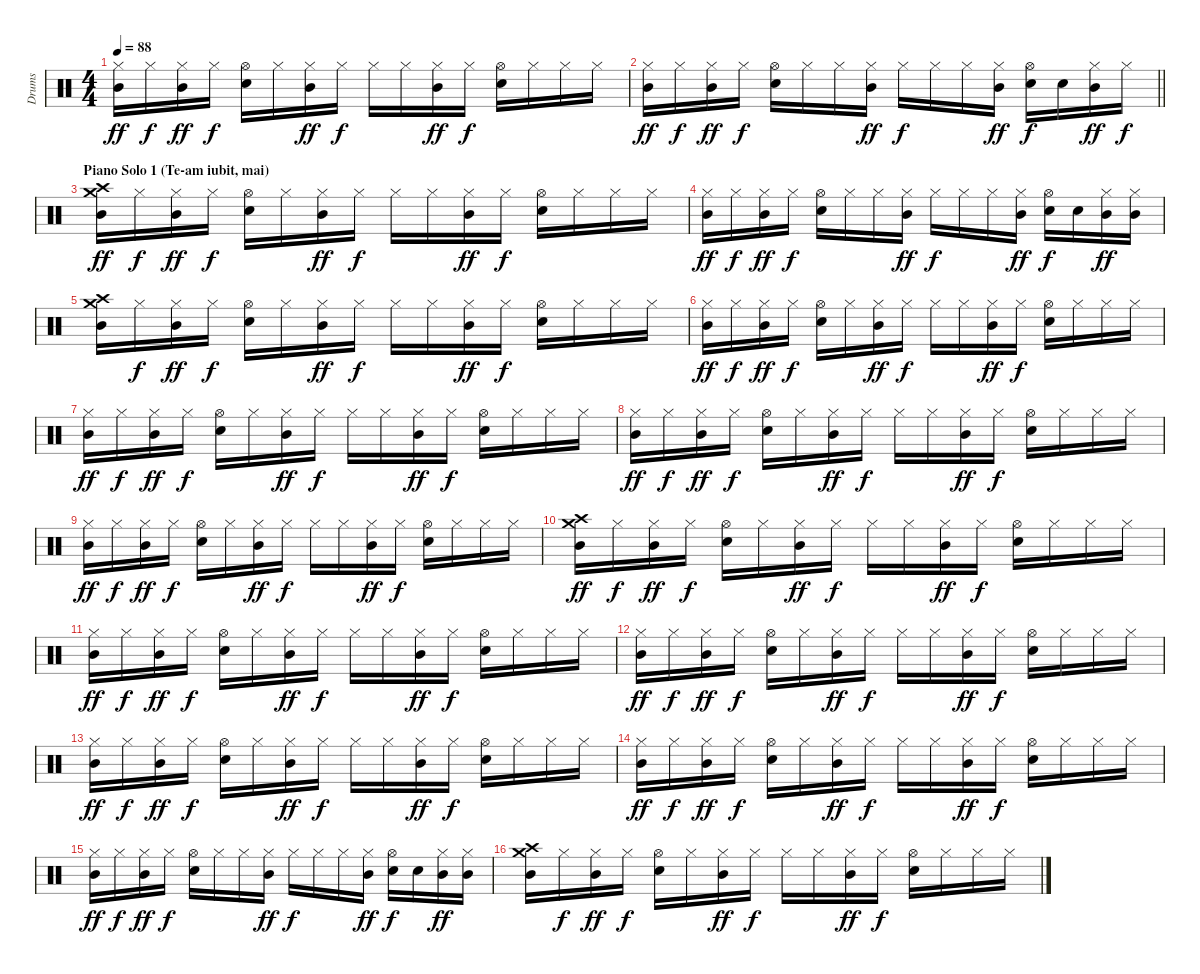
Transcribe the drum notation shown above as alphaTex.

\track ("Drums" "Drums") {instrument percussion}
\staff {score}
\articulation defaults
\ts (4 4)
\tempo 88
\clef neutral
\ks c
("Hi-Hat (closed)" "Mid Tom (hit)").16{dy ff} "Hi-Hat (closed)".16{dy f} ("Hi-Hat (closed)" "Mid Tom (hit)").16{dy ff} "Hi-Hat (closed)".16{dy f} ("Hi-Hat (open)" "Electric Snare (hit)").16 "Hi-Hat (closed)".16 ("Hi-Hat (closed)" "Mid Tom (hit)").16{dy ff} "Hi-Hat (closed)".16{dy f} "Hi-Hat (closed)".16 "Hi-Hat (closed)".16 ("Hi-Hat (closed)" "Mid Tom (hit)").16{dy ff} "Hi-Hat (closed)".16{dy f} ("Hi-Hat (open)" "Electric Snare (hit)").16 "Hi-Hat (closed)".16 "Hi-Hat (closed)".16 "Hi-Hat (closed)".16 |
\barLineRight lightlight
("Hi-Hat (closed)" "Mid Tom (hit)").16{dy ff} "Hi-Hat (closed)".16{dy f} ("Hi-Hat (closed)" "Mid Tom (hit)").16{dy ff} "Hi-Hat (closed)".16{dy f} ("Hi-Hat (open)" "Electric Snare (hit)").16 "Hi-Hat (closed)".16 "Hi-Hat (closed)".16 ("Hi-Hat (closed)" "Mid Tom (hit)").16{dy ff} "Hi-Hat (closed)".16{dy f} "Hi-Hat (closed)".16 "Hi-Hat (closed)".16 ("Hi-Hat (closed)" "Mid Tom (hit)").16{dy ff} ("Hi-Hat (open)" "Electric Snare (hit)").16{dy f} "Electric Snare (hit)".16 ("Hi-Hat (closed)" "Mid Tom (hit)").16{dy ff} "Hi-Hat (closed)".16{dy f} |
\section ("" "Piano Solo 1 (Te-am iubit, mai)")
("Crash medium (hit)" "Crash high (hit)" "Mid Tom (hit)").16{dy ff} "Hi-Hat (closed)".16{dy f} ("Hi-Hat (closed)" "Mid Tom (hit)").16{dy ff} "Hi-Hat (closed)".16{dy f} ("Hi-Hat (open)" "Electric Snare (hit)").16 "Hi-Hat (closed)".16 ("Hi-Hat (closed)" "Mid Tom (hit)").16{dy ff} "Hi-Hat (closed)".16{dy f} "Hi-Hat (closed)".16 "Hi-Hat (closed)".16 ("Hi-Hat (closed)" "Mid Tom (hit)").16{dy ff} "Hi-Hat (closed)".16{dy f} ("Hi-Hat (open)" "Electric Snare (hit)").16 "Hi-Hat (closed)".16 "Hi-Hat (closed)".16 "Hi-Hat (closed)".16 |
("Hi-Hat (closed)" "Mid Tom (hit)").16{dy ff} "Hi-Hat (closed)".16{dy f} ("Hi-Hat (closed)" "Mid Tom (hit)").16{dy ff} "Hi-Hat (closed)".16{dy f} ("Hi-Hat (open)" "Electric Snare (hit)").16 "Hi-Hat (closed)".16 "Hi-Hat (closed)".16 ("Hi-Hat (closed)" "Mid Tom (hit)").16{dy ff} "Hi-Hat (closed)".16{dy f} "Hi-Hat (closed)".16 "Hi-Hat (closed)".16 ("Hi-Hat (closed)" "Mid Tom (hit)").16{dy ff} ("Hi-Hat (open)" "Electric Snare (hit)").16{dy f} "Electric Snare (hit)".16 ("Hi-Hat (closed)" "Mid Tom (hit)").16{dy ff} ("Hi-Hat (closed)" "Mid Tom (hit)").16 |
("Crash medium (hit)" "Crash high (hit)" "Mid Tom (hit)").16 "Hi-Hat (closed)".16{dy f} ("Hi-Hat (closed)" "Mid Tom (hit)").16{dy ff} "Hi-Hat (closed)".16{dy f} ("Hi-Hat (open)" "Electric Snare (hit)").16 "Hi-Hat (closed)".16 ("Hi-Hat (closed)" "Mid Tom (hit)").16{dy ff} "Hi-Hat (closed)".16{dy f} "Hi-Hat (closed)".16 "Hi-Hat (closed)".16 ("Hi-Hat (closed)" "Mid Tom (hit)").16{dy ff} "Hi-Hat (closed)".16{dy f} ("Hi-Hat (open)" "Electric Snare (hit)").16 "Hi-Hat (closed)".16 "Hi-Hat (closed)".16 "Hi-Hat (closed)".16 |
("Hi-Hat (closed)" "Mid Tom (hit)").16{dy ff} "Hi-Hat (closed)".16{dy f} ("Hi-Hat (closed)" "Mid Tom (hit)").16{dy ff} "Hi-Hat (closed)".16{dy f} ("Hi-Hat (open)" "Electric Snare (hit)").16 "Hi-Hat (closed)".16 ("Hi-Hat (closed)" "Mid Tom (hit)").16{dy ff} "Hi-Hat (closed)".16{dy f} "Hi-Hat (closed)".16 "Hi-Hat (closed)".16 ("Hi-Hat (closed)" "Mid Tom (hit)").16{dy ff} "Hi-Hat (closed)".16{dy f} ("Hi-Hat (open)" "Electric Snare (hit)").16 "Hi-Hat (closed)".16 "Hi-Hat (closed)".16 "Hi-Hat (closed)".16 |
("Hi-Hat (closed)" "Mid Tom (hit)").16{dy ff} "Hi-Hat (closed)".16{dy f} ("Hi-Hat (closed)" "Mid Tom (hit)").16{dy ff} "Hi-Hat (closed)".16{dy f} ("Hi-Hat (open)" "Electric Snare (hit)").16 "Hi-Hat (closed)".16 ("Hi-Hat (closed)" "Mid Tom (hit)").16{dy ff} "Hi-Hat (closed)".16{dy f} "Hi-Hat (closed)".16 "Hi-Hat (closed)".16 ("Hi-Hat (closed)" "Mid Tom (hit)").16{dy ff} "Hi-Hat (closed)".16{dy f} ("Hi-Hat (open)" "Electric Snare (hit)").16 "Hi-Hat (closed)".16 "Hi-Hat (closed)".16 "Hi-Hat (closed)".16 |
("Hi-Hat (closed)" "Mid Tom (hit)").16{dy ff} "Hi-Hat (closed)".16{dy f} ("Hi-Hat (closed)" "Mid Tom (hit)").16{dy ff} "Hi-Hat (closed)".16{dy f} ("Hi-Hat (open)" "Electric Snare (hit)").16 "Hi-Hat (closed)".16 ("Hi-Hat (closed)" "Mid Tom (hit)").16{dy ff} "Hi-Hat (closed)".16{dy f} "Hi-Hat (closed)".16 "Hi-Hat (closed)".16 ("Hi-Hat (closed)" "Mid Tom (hit)").16{dy ff} "Hi-Hat (closed)".16{dy f} ("Hi-Hat (open)" "Electric Snare (hit)").16 "Hi-Hat (closed)".16 "Hi-Hat (closed)".16 "Hi-Hat (closed)".16 |
("Hi-Hat (closed)" "Mid Tom (hit)").16{dy ff} "Hi-Hat (closed)".16{dy f} ("Hi-Hat (closed)" "Mid Tom (hit)").16{dy ff} "Hi-Hat (closed)".16{dy f} ("Hi-Hat (open)" "Electric Snare (hit)").16 "Hi-Hat (closed)".16 ("Hi-Hat (closed)" "Mid Tom (hit)").16{dy ff} "Hi-Hat (closed)".16{dy f} "Hi-Hat (closed)".16 "Hi-Hat (closed)".16 ("Hi-Hat (closed)" "Mid Tom (hit)").16{dy ff} "Hi-Hat (closed)".16{dy f} ("Hi-Hat (open)" "Electric Snare (hit)").16 "Hi-Hat (closed)".16 "Hi-Hat (closed)".16 "Hi-Hat (closed)".16 |
("Crash medium (hit)" "Crash high (hit)" "Mid Tom (hit)").16{dy ff} "Hi-Hat (closed)".16{dy f} ("Hi-Hat (closed)" "Mid Tom (hit)").16{dy ff} "Hi-Hat (closed)".16{dy f} ("Hi-Hat (open)" "Electric Snare (hit)").16 "Hi-Hat (closed)".16 ("Hi-Hat (closed)" "Mid Tom (hit)").16{dy ff} "Hi-Hat (closed)".16{dy f} "Hi-Hat (closed)".16 "Hi-Hat (closed)".16 ("Hi-Hat (closed)" "Mid Tom (hit)").16{dy ff} "Hi-Hat (closed)".16{dy f} ("Hi-Hat (open)" "Electric Snare (hit)").16 "Hi-Hat (closed)".16 "Hi-Hat (closed)".16 "Hi-Hat (closed)".16 |
("Hi-Hat (closed)" "Mid Tom (hit)").16{dy ff} "Hi-Hat (closed)".16{dy f} ("Hi-Hat (closed)" "Mid Tom (hit)").16{dy ff} "Hi-Hat (closed)".16{dy f} ("Hi-Hat (open)" "Electric Snare (hit)").16 "Hi-Hat (closed)".16 ("Hi-Hat (closed)" "Mid Tom (hit)").16{dy ff} "Hi-Hat (closed)".16{dy f} "Hi-Hat (closed)".16 "Hi-Hat (closed)".16 ("Hi-Hat (closed)" "Mid Tom (hit)").16{dy ff} "Hi-Hat (closed)".16{dy f} ("Hi-Hat (open)" "Electric Snare (hit)").16 "Hi-Hat (closed)".16 "Hi-Hat (closed)".16 "Hi-Hat (closed)".16 |
("Hi-Hat (closed)" "Mid Tom (hit)").16{dy ff} "Hi-Hat (closed)".16{dy f} ("Hi-Hat (closed)" "Mid Tom (hit)").16{dy ff} "Hi-Hat (closed)".16{dy f} ("Hi-Hat (open)" "Electric Snare (hit)").16 "Hi-Hat (closed)".16 ("Hi-Hat (closed)" "Mid Tom (hit)").16{dy ff} "Hi-Hat (closed)".16{dy f} "Hi-Hat (closed)".16 "Hi-Hat (closed)".16 ("Hi-Hat (closed)" "Mid Tom (hit)").16{dy ff} "Hi-Hat (closed)".16{dy f} ("Hi-Hat (open)" "Electric Snare (hit)").16 "Hi-Hat (closed)".16 "Hi-Hat (closed)".16 "Hi-Hat (closed)".16 |
("Hi-Hat (closed)" "Mid Tom (hit)").16{dy ff} "Hi-Hat (closed)".16{dy f} ("Hi-Hat (closed)" "Mid Tom (hit)").16{dy ff} "Hi-Hat (closed)".16{dy f} ("Hi-Hat (open)" "Electric Snare (hit)").16 "Hi-Hat (closed)".16 ("Hi-Hat (closed)" "Mid Tom (hit)").16{dy ff} "Hi-Hat (closed)".16{dy f} "Hi-Hat (closed)".16 "Hi-Hat (closed)".16 ("Hi-Hat (closed)" "Mid Tom (hit)").16{dy ff} "Hi-Hat (closed)".16{dy f} ("Hi-Hat (open)" "Electric Snare (hit)").16 "Hi-Hat (closed)".16 "Hi-Hat (closed)".16 "Hi-Hat (closed)".16 |
("Hi-Hat (closed)" "Mid Tom (hit)").16{dy ff} "Hi-Hat (closed)".16{dy f} ("Hi-Hat (closed)" "Mid Tom (hit)").16{dy ff} "Hi-Hat (closed)".16{dy f} ("Hi-Hat (open)" "Electric Snare (hit)").16 "Hi-Hat (closed)".16 ("Hi-Hat (closed)" "Mid Tom (hit)").16{dy ff} "Hi-Hat (closed)".16{dy f} "Hi-Hat (closed)".16 "Hi-Hat (closed)".16 ("Hi-Hat (closed)" "Mid Tom (hit)").16{dy ff} "Hi-Hat (closed)".16{dy f} ("Hi-Hat (open)" "Electric Snare (hit)").16 "Hi-Hat (closed)".16 "Hi-Hat (closed)".16 "Hi-Hat (closed)".16 |
("Hi-Hat (closed)" "Mid Tom (hit)").16{dy ff} "Hi-Hat (closed)".16{dy f} ("Hi-Hat (closed)" "Mid Tom (hit)").16{dy ff} "Hi-Hat (closed)".16{dy f} ("Hi-Hat (open)" "Electric Snare (hit)").16 "Hi-Hat (closed)".16 "Hi-Hat (closed)".16 ("Hi-Hat (closed)" "Mid Tom (hit)").16{dy ff} "Hi-Hat (closed)".16{dy f} "Hi-Hat (closed)".16 "Hi-Hat (closed)".16 ("Hi-Hat (closed)" "Mid Tom (hit)").16{dy ff} ("Hi-Hat (open)" "Electric Snare (hit)").16{dy f} "Electric Snare (hit)".16 ("Hi-Hat (closed)" "Mid Tom (hit)").16{dy ff} ("Hi-Hat (closed)" "Mid Tom (hit)").16 |
("Crash medium (hit)" "Crash high (hit)" "Mid Tom (hit)").16 "Hi-Hat (closed)".16{dy f} ("Hi-Hat (closed)" "Mid Tom (hit)").16{dy ff} "Hi-Hat (closed)".16{dy f} ("Hi-Hat (open)" "Electric Snare (hit)").16 "Hi-Hat (closed)".16 ("Hi-Hat (closed)" "Mid Tom (hit)").16{dy ff} "Hi-Hat (closed)".16{dy f} "Hi-Hat (closed)".16 "Hi-Hat (closed)".16 ("Hi-Hat (closed)" "Mid Tom (hit)").16{dy ff} "Hi-Hat (closed)".16{dy f} ("Hi-Hat (open)" "Electric Snare (hit)").16 "Hi-Hat (closed)".16 "Hi-Hat (closed)".16 "Hi-Hat (closed)".16
